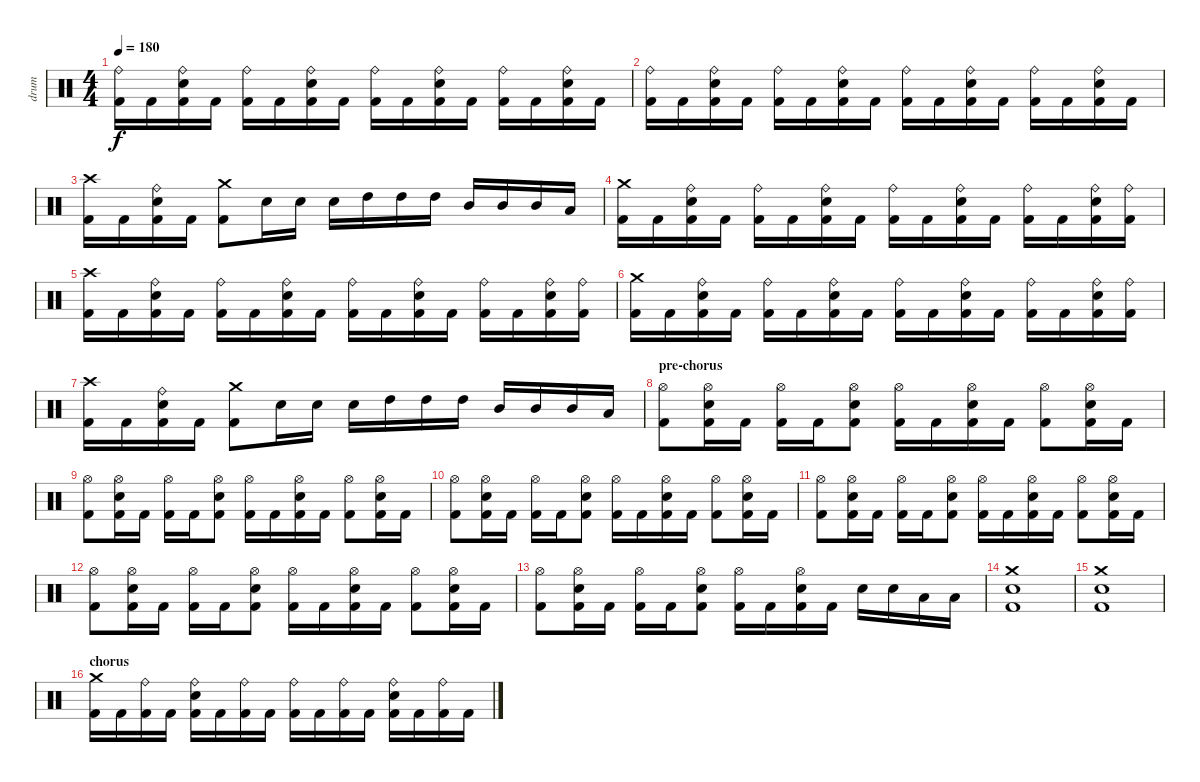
\track ("drum" "drum") {instrument percussion}
\staff {score}
\articulation defaults
\ts (4 4)
\tempo 180
\clef neutral
\ks c
("Ride (bell)" "Kick (hit) 2").16{dy f} "Kick (hit) 2".16 ("Ride (bell)" "Electric Snare (hit)" "Kick (hit) 2").16 "Kick (hit) 2".16 ("Ride (bell)" "Kick (hit) 2").16 "Kick (hit) 2".16 ("Ride (bell)" "Electric Snare (hit)" "Kick (hit) 2").16 "Kick (hit) 2".16 ("Ride (bell)" "Kick (hit) 2").16 "Kick (hit) 2".16 ("Ride (bell)" "Electric Snare (hit)" "Kick (hit) 2").16 "Kick (hit) 2".16 ("Ride (bell)" "Kick (hit) 2").16 "Kick (hit) 2".16 ("Ride (bell)" "Electric Snare (hit)" "Kick (hit) 2").16 "Kick (hit) 2".16 |
("Ride (bell)" "Kick (hit) 2").16 "Kick (hit) 2".16 ("Ride (bell)" "Electric Snare (hit)" "Kick (hit) 2").16 "Kick (hit) 2".16 ("Ride (bell)" "Kick (hit) 2").16 "Kick (hit) 2".16 ("Ride (bell)" "Electric Snare (hit)" "Kick (hit) 2").16 "Kick (hit) 2".16 ("Ride (bell)" "Kick (hit) 2").16 "Kick (hit) 2".16 ("Ride (bell)" "Electric Snare (hit)" "Kick (hit) 2").16 "Kick (hit) 2".16 ("Ride (bell)" "Kick (hit) 2").16 "Kick (hit) 2".16 ("Ride (bell)" "Electric Snare (hit)" "Kick (hit) 2").16 "Kick (hit) 2".16 |
("Crash high (hit)" "Kick (hit) 2").16 "Kick (hit) 2".16 ("Ride (bell)" "Electric Snare (hit)" "Kick (hit) 2").16 "Kick (hit) 2".16 ("Crash medium (hit)" "Kick (hit) 2").8 "Electric Snare (hit)".16 "Electric Snare (hit)".16 "Electric Snare (hit)".16 "High Tom (hit)".16 "High Tom (hit)".16 "High Tom (hit)".16 "Mid Tom (hit)".16 "Mid Tom (hit)".16 "Mid Tom (hit)".16 "Low Tom (hit)".16 |
("Crash medium (hit)" "Kick (hit) 2").16 "Kick (hit) 2".16 ("Ride (bell)" "Electric Snare (hit)" "Kick (hit) 2").16 "Kick (hit) 2".16 ("Ride (bell)" "Kick (hit) 2").16 "Kick (hit) 2".16 ("Ride (bell)" "Electric Snare (hit)" "Kick (hit) 2").16 "Kick (hit) 2".16 ("Ride (bell)" "Kick (hit) 2").16 "Kick (hit) 2".16 ("Ride (bell)" "Electric Snare (hit)" "Kick (hit) 2").16 "Kick (hit) 2".16 ("Ride (bell)" "Kick (hit) 2").16 "Kick (hit) 2".16 ("Ride (bell)" "Electric Snare (hit)" "Kick (hit) 2").16 ("Ride (bell)" "Kick (hit) 2").16 |
("Crash high (hit)" "Kick (hit) 2").16 "Kick (hit) 2".16 ("Ride (bell)" "Electric Snare (hit)" "Kick (hit) 2").16 "Kick (hit) 2".16 ("Ride (bell)" "Kick (hit) 2").16 "Kick (hit) 2".16 ("Ride (bell)" "Electric Snare (hit)" "Kick (hit) 2").16 "Kick (hit) 2".16 ("Ride (bell)" "Kick (hit) 2").16 "Kick (hit) 2".16 ("Ride (bell)" "Electric Snare (hit)" "Kick (hit) 2").16 "Kick (hit) 2".16 ("Ride (bell)" "Kick (hit) 2").16 "Kick (hit) 2".16 ("Ride (bell)" "Electric Snare (hit)" "Kick (hit) 2").16 ("Ride (bell)" "Kick (hit) 2").16 |
("Crash medium (hit)" "Kick (hit) 2").16 "Kick (hit) 2".16 ("Ride (bell)" "Electric Snare (hit)" "Kick (hit) 2").16 "Kick (hit) 2".16 ("Ride (bell)" "Kick (hit) 2").16 "Kick (hit) 2".16 ("Ride (bell)" "Electric Snare (hit)" "Kick (hit) 2").16 "Kick (hit) 2".16 ("Ride (bell)" "Kick (hit) 2").16 "Kick (hit) 2".16 ("Ride (bell)" "Electric Snare (hit)" "Kick (hit) 2").16 "Kick (hit) 2".16 ("Ride (bell)" "Kick (hit) 2").16 "Kick (hit) 2".16 ("Ride (bell)" "Electric Snare (hit)" "Kick (hit) 2").16 ("Ride (bell)" "Kick (hit) 2").16 |
("Crash high (hit)" "Kick (hit) 2").16 "Kick (hit) 2".16 ("Ride (bell)" "Electric Snare (hit)" "Kick (hit) 2").16 "Kick (hit) 2".16 ("Crash medium (hit)" "Kick (hit) 2").8 "Electric Snare (hit)".16 "Electric Snare (hit)".16 "Electric Snare (hit)".16 "High Tom (hit)".16 "High Tom (hit)".16 "High Tom (hit)".16 "Mid Tom (hit)".16 "Mid Tom (hit)".16 "Mid Tom (hit)".16 "Low Tom (hit)".16 |
\section ("" "pre-chorus")
("Hi-Hat (open)" "Kick (hit) 2").8 ("Hi-Hat (open)" "Electric Snare (hit)" "Kick (hit) 2").16 "Kick (hit) 2".16 ("Hi-Hat (open)" "Kick (hit) 2").16 "Kick (hit) 2".16 ("Hi-Hat (open)" "Electric Snare (hit)" "Kick (hit) 2").8 ("Hi-Hat (open)" "Kick (hit) 2").16 "Kick (hit) 2".16 ("Hi-Hat (open)" "Electric Snare (hit)" "Kick (hit) 2").16 "Kick (hit) 2".16 ("Hi-Hat (open)" "Kick (hit) 2").8 ("Hi-Hat (open)" "Electric Snare (hit)" "Kick (hit) 2").16 "Kick (hit) 2".16 |
("Hi-Hat (open)" "Kick (hit) 2").8 ("Hi-Hat (open)" "Electric Snare (hit)" "Kick (hit) 2").16 "Kick (hit) 2".16 ("Hi-Hat (open)" "Kick (hit) 2").16 "Kick (hit) 2".16 ("Hi-Hat (open)" "Electric Snare (hit)" "Kick (hit) 2").8 ("Hi-Hat (open)" "Kick (hit) 2").16 "Kick (hit) 2".16 ("Hi-Hat (open)" "Electric Snare (hit)" "Kick (hit) 2").16 "Kick (hit) 2".16 ("Hi-Hat (open)" "Kick (hit) 2").8 ("Hi-Hat (open)" "Electric Snare (hit)" "Kick (hit) 2").16 "Kick (hit) 2".16 |
("Hi-Hat (open)" "Kick (hit) 2").8 ("Hi-Hat (open)" "Electric Snare (hit)" "Kick (hit) 2").16 "Kick (hit) 2".16 ("Hi-Hat (open)" "Kick (hit) 2").16 "Kick (hit) 2".16 ("Hi-Hat (open)" "Electric Snare (hit)" "Kick (hit) 2").8 ("Hi-Hat (open)" "Kick (hit) 2").16 "Kick (hit) 2".16 ("Hi-Hat (open)" "Electric Snare (hit)" "Kick (hit) 2").16 "Kick (hit) 2".16 ("Hi-Hat (open)" "Kick (hit) 2").8 ("Hi-Hat (open)" "Electric Snare (hit)" "Kick (hit) 2").16 "Kick (hit) 2".16 |
("Hi-Hat (open)" "Kick (hit) 2").8 ("Hi-Hat (open)" "Electric Snare (hit)" "Kick (hit) 2").16 "Kick (hit) 2".16 ("Hi-Hat (open)" "Kick (hit) 2").16 "Kick (hit) 2".16 ("Hi-Hat (open)" "Electric Snare (hit)" "Kick (hit) 2").8 ("Hi-Hat (open)" "Kick (hit) 2").16 "Kick (hit) 2".16 ("Hi-Hat (open)" "Electric Snare (hit)" "Kick (hit) 2").16 "Kick (hit) 2".16 ("Hi-Hat (open)" "Kick (hit) 2").8 ("Hi-Hat (open)" "Electric Snare (hit)" "Kick (hit) 2").16 "Kick (hit) 2".16 |
("Hi-Hat (open)" "Kick (hit) 2").8 ("Hi-Hat (open)" "Electric Snare (hit)" "Kick (hit) 2").16 "Kick (hit) 2".16 ("Hi-Hat (open)" "Kick (hit) 2").16 "Kick (hit) 2".16 ("Hi-Hat (open)" "Electric Snare (hit)" "Kick (hit) 2").8 ("Hi-Hat (open)" "Kick (hit) 2").16 "Kick (hit) 2".16 ("Hi-Hat (open)" "Electric Snare (hit)" "Kick (hit) 2").16 "Kick (hit) 2".16 ("Hi-Hat (open)" "Kick (hit) 2").8 ("Hi-Hat (open)" "Electric Snare (hit)" "Kick (hit) 2").16 "Kick (hit) 2".16 |
("Hi-Hat (open)" "Kick (hit) 2").8 ("Hi-Hat (open)" "Electric Snare (hit)" "Kick (hit) 2").16 "Kick (hit) 2".16 ("Hi-Hat (open)" "Kick (hit) 2").16 "Kick (hit) 2".16 ("Hi-Hat (open)" "Electric Snare (hit)" "Kick (hit) 2").8 ("Hi-Hat (open)" "Kick (hit) 2").16 "Kick (hit) 2".16 ("Hi-Hat (open)" "Electric Snare (hit)" "Kick (hit) 2").16 "Kick (hit) 2".16 "Electric Snare (hit)".16 "Electric Snare (hit)".16 "Low Tom (hit)".16 "Low Tom (hit)".16 |
("Crash medium (hit)" "Electric Snare (hit)" "Kick (hit) 2").1 |
("Crash medium (hit)" "Electric Snare (hit)" "Kick (hit) 2").1 |
\section ("" "chorus")
("Crash medium (hit)" "Kick (hit) 2").16 "Kick (hit) 2".16 ("Ride (bell)" "Kick (hit) 2").16 "Kick (hit) 2".16 ("Ride (bell)" "Electric Snare (hit)" "Kick (hit) 2").16 "Kick (hit) 2".16 ("Ride (bell)" "Kick (hit) 2").16 "Kick (hit) 2".16 ("Ride (bell)" "Kick (hit) 2").16 "Kick (hit) 2".16 ("Ride (bell)" "Kick (hit) 2").16 "Kick (hit) 2".16 ("Ride (bell)" "Electric Snare (hit)" "Kick (hit) 2").16 "Kick (hit) 2".16 ("Ride (bell)" "Kick (hit) 2").16 "Kick (hit) 2".16
